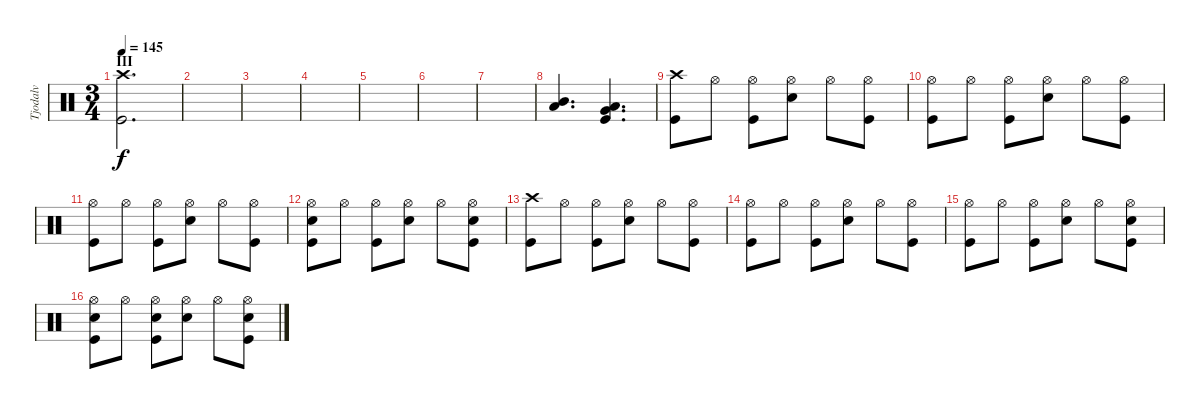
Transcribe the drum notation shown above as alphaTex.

\track ("Tjodalv" "Tjodalv") {instrument percussion}
\staff {score}
\articulation defaults
\ts (3 4)
\section ("" "III")
\tempo 145
\clef neutral
\ks c
("Crash high (hit)" "Kick (hit)").2{d dy f} |
|
|
|
|
|
|
("Low Tom (hit)" "Mid Tom (hit)").4{d} ("Very Low Tom (hit)" "Low Tom (hit)" "Kick (hit)").4{d} |
("Crash high (hit)" "Kick (hit)").8 "Hi-Hat (open)".8 ("Hi-Hat (open)" "Kick (hit)").8 ("Hi-Hat (open)" "Snare (hit) 2").8 "Hi-Hat (open)".8 ("Hi-Hat (open)" "Kick (hit)").8 |
("Hi-Hat (open)" "Kick (hit)").8 "Hi-Hat (open)".8 ("Hi-Hat (open)" "Kick (hit)").8 ("Hi-Hat (open)" "Snare (hit) 2").8 "Hi-Hat (open)".8 ("Hi-Hat (open)" "Kick (hit)").8 |
("Hi-Hat (open)" "Kick (hit)").8 "Hi-Hat (open)".8 ("Hi-Hat (open)" "Kick (hit)").8 ("Hi-Hat (open)" "Snare (hit) 2").8 "Hi-Hat (open)".8 ("Hi-Hat (open)" "Kick (hit)").8 |
("Hi-Hat (open)" "Snare (hit) 2" "Kick (hit)").8 "Hi-Hat (open)".8 ("Hi-Hat (open)" "Kick (hit)").8 ("Hi-Hat (open)" "Snare (hit) 2").8 "Hi-Hat (open)".8 ("Hi-Hat (open)" "Snare (hit) 2" "Kick (hit)").8 |
("Crash high (hit)" "Kick (hit)").8 "Hi-Hat (open)".8 ("Hi-Hat (open)" "Kick (hit)").8 ("Hi-Hat (open)" "Snare (hit) 2").8 "Hi-Hat (open)".8 ("Hi-Hat (open)" "Kick (hit)").8 |
("Hi-Hat (open)" "Kick (hit)").8 "Hi-Hat (open)".8 ("Hi-Hat (open)" "Kick (hit)").8 ("Hi-Hat (open)" "Snare (hit) 2").8 "Hi-Hat (open)".8 ("Hi-Hat (open)" "Kick (hit)").8 |
("Hi-Hat (open)" "Kick (hit)").8 "Hi-Hat (open)".8 ("Hi-Hat (open)" "Kick (hit)").8 ("Hi-Hat (open)" "Snare (hit) 2").8 "Hi-Hat (open)".8 ("Hi-Hat (open)" "Snare (hit) 2" "Kick (hit)").8 |
("Hi-Hat (open)" "Snare (hit) 2" "Kick (hit)").8 "Hi-Hat (open)".8 ("Hi-Hat (open)" "Snare (hit) 2" "Kick (hit)").8 ("Hi-Hat (open)" "Snare (hit) 2").8 "Hi-Hat (open)".8 ("Hi-Hat (open)" "Snare (hit) 2" "Kick (hit)").8
